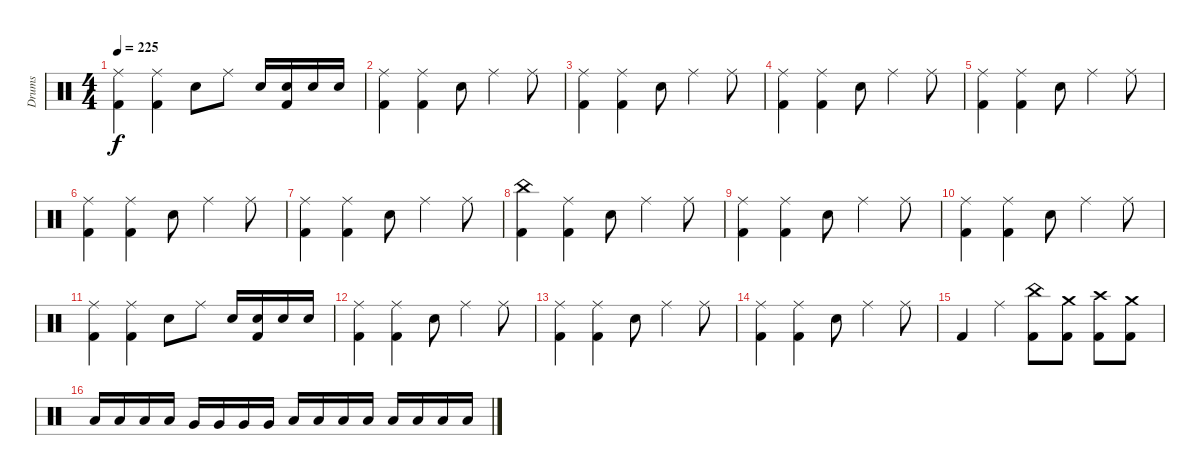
\track ("Drums" "Drums") {instrument percussion}
\staff {score}
\articulation defaults
\ts (4 4)
\tempo 225
\clef neutral
\ks c
("Ride (middle)" "Kick (hit) 2").4{dy f} ("Ride (middle)" "Kick (hit) 2").4 "Electric Snare (hit)".8 "Ride (middle)".8 "Electric Snare (hit)".16 ("Electric Snare (hit)" "Kick (hit) 2").16 "Electric Snare (hit)".16 "Electric Snare (hit)".16 |
("Ride (middle)" "Kick (hit) 2").4 ("Ride (middle)" "Kick (hit) 2").4 "Electric Snare (hit)".8 "Ride (middle)".4 "Ride (middle)".8 |
("Ride (middle)" "Kick (hit) 2").4 ("Ride (middle)" "Kick (hit) 2").4 "Electric Snare (hit)".8 "Ride (middle)".4 "Ride (middle)".8 |
("Ride (middle)" "Kick (hit) 2").4 ("Ride (middle)" "Kick (hit) 2").4 "Electric Snare (hit)".8 "Ride (middle)".4 "Ride (middle)".8 |
("Ride (middle)" "Kick (hit) 2").4 ("Ride (middle)" "Kick (hit) 2").4 "Electric Snare (hit)".8 "Ride (middle)".4 "Ride (middle)".8 |
("Ride (middle)" "Kick (hit) 2").4 ("Ride (middle)" "Kick (hit) 2").4 "Electric Snare (hit)".8 "Ride (middle)".4 "Ride (middle)".8 |
("Ride (middle)" "Kick (hit) 2").4 ("Ride (middle)" "Kick (hit) 2").4 "Electric Snare (hit)".8 "Ride (middle)".4 "Ride (middle)".8 |
("China (hit)" "Kick (hit) 2").4 ("Ride (middle)" "Kick (hit) 2").4 "Electric Snare (hit)".8 "Ride (middle)".4 "Ride (middle)".8 |
("Ride (middle)" "Kick (hit) 2").4 ("Ride (middle)" "Kick (hit) 2").4 "Electric Snare (hit)".8 "Ride (middle)".4 "Ride (middle)".8 |
("Ride (middle)" "Kick (hit) 2").4 ("Ride (middle)" "Kick (hit) 2").4 "Electric Snare (hit)".8 "Ride (middle)".4 "Ride (middle)".8 |
("Ride (middle)" "Kick (hit) 2").4 ("Ride (middle)" "Kick (hit) 2").4 "Electric Snare (hit)".8 "Ride (middle)".8 "Electric Snare (hit)".16 ("Electric Snare (hit)" "Kick (hit) 2").16 "Electric Snare (hit)".16 "Electric Snare (hit)".16 |
("Ride (middle)" "Kick (hit) 2").4 ("Ride (middle)" "Kick (hit) 2").4 "Electric Snare (hit)".8 "Ride (middle)".4 "Ride (middle)".8 |
("Ride (middle)" "Kick (hit) 2").4 ("Ride (middle)" "Kick (hit) 2").4 "Electric Snare (hit)".8 "Ride (middle)".4 "Ride (middle)".8 |
("Ride (middle)" "Kick (hit) 2").4 ("Ride (middle)" "Kick (hit) 2").4 "Electric Snare (hit)".8 "Ride (middle)".4 "Ride (middle)".8 |
"Kick (hit) 2".4 "Ride (middle)".4 ("China (hit)" "Kick (hit) 2").8 ("Crash medium (hit)" "Kick (hit) 2").8 ("Crash high (hit)" "Kick (hit) 2").8 ("Crash medium (hit)" "Kick (hit) 2").8 |
"Low Tom (hit)".16 "Low Tom (hit)".16 "Low Tom (hit)".16 "Low Tom (hit)".16 "Very Low Tom (hit)".16 "Very Low Tom (hit)".16 "Very Low Tom (hit)".16 "Very Low Tom (hit)".16 "Low Tom (hit)".16 "Low Tom (hit)".16 "Low Tom (hit)".16 "Low Tom (hit)".16 "Low Floor Tom (hit)".16 "Low Floor Tom (hit)".16 "Low Floor Tom (hit)".16 "Low Floor Tom (hit)".16
